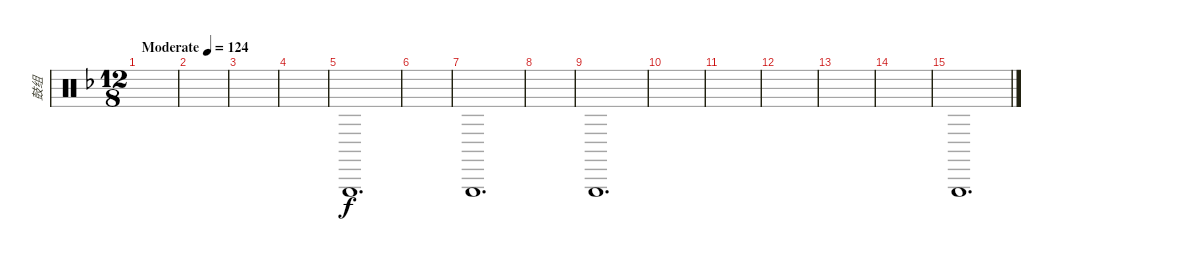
\track ("鼓组" "鼓组") {instrument percussion}
\staff {score}
\articulation defaults
\ts (12 8)
\tempo (124 "Moderate")
\clef neutral
\ks f
|
|
|
|
"Triangle (hit)".1{d volume 16} |
|
"Triangle (hit)".1{d volume 16} |
|
"Triangle (hit)".1{d volume 16} |
|
|
|
|
|
"Triangle (hit)".1{d volume 16}
